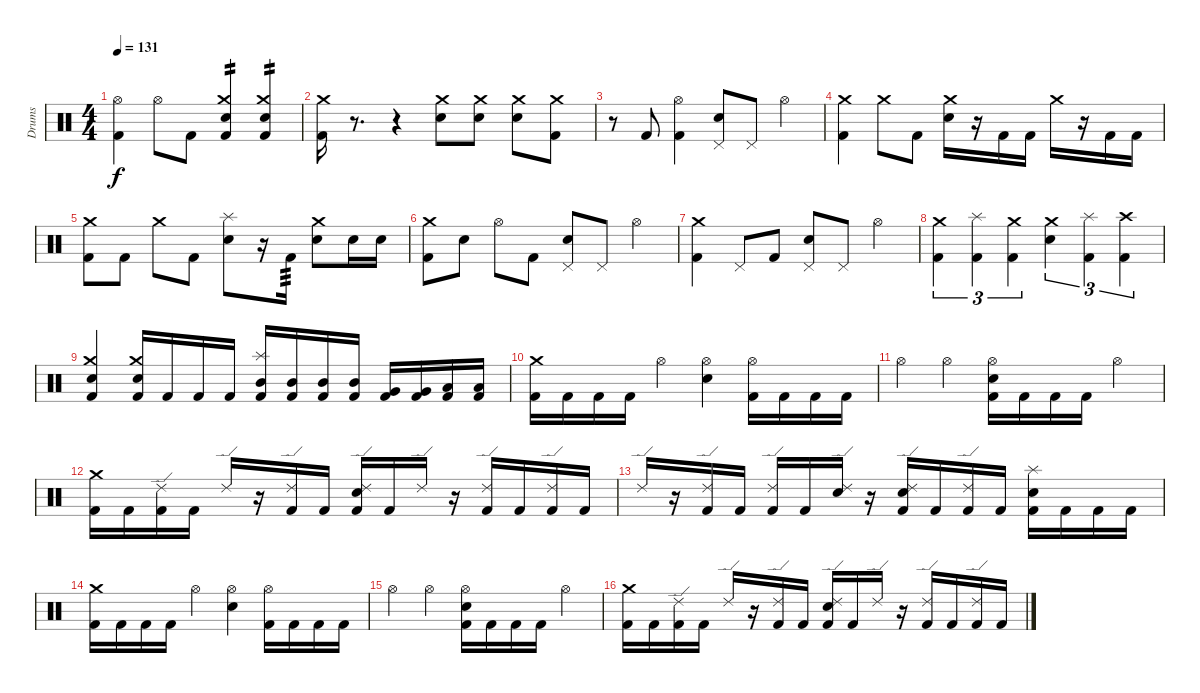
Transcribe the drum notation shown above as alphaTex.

\track ("Drums" "Drums") {instrument percussion}
\staff {score}
\articulation defaults
\ts (4 4)
\tempo 131
\clef neutral
\ks c
("Hi-Hat (open)" "Kick (hit) 2").4{dy f} "Hi-Hat (open)".8 "Kick (hit) 2".8 ("Crash medium (hit)" "Electric Snare (hit)" "Kick (hit) 2").4{tp 2} ("Crash medium (hit)" "Electric Snare (hit)" "Kick (hit) 2").4{tp 2} |
("Crash medium (hit)" "Kick (hit) 2").16 r.8{d volume 0} r.4 ("Crash medium (hit)" "Electric Snare (hit)").8{volume 16} ("Crash medium (hit)" "Electric Snare (hit)").8 ("Crash medium (hit)" "Electric Snare (hit)").8 ("Crash medium (hit)" "Kick (hit) 2").8 |
r.8 "Kick (hit) 2".8 ("Hi-Hat (open)" "Kick (hit) 2").4 ("Pedal Hi-Hat (hit)" "Electric Snare (hit)").8 "Pedal Hi-Hat (hit)".8 "Hi-Hat (open)".4 |
("Crash medium (hit)" "Kick (hit) 2").4 "Crash medium (hit)".8 "Kick (hit) 2".8 ("Crash medium (hit)" "Electric Snare (hit)").16 r.16 "Kick (hit) 2".16 "Kick (hit) 2".16 "Crash medium (hit)".16 r.16 "Kick (hit) 2".16 "Kick (hit) 2".16 |
("Crash medium (hit)" "Kick (hit) 2").8 "Kick (hit) 2".8 "Crash medium (hit)".8 "Kick (hit) 2".8 ("Splash (hit)" "Electric Snare (hit)").8 r.16 "Kick (hit) 2".16{tp 3} ("Crash medium (hit)" "Electric Snare (hit)").8 "Electric Snare (hit)".16 "Electric Snare (hit)".16 |
("Crash medium (hit)" "Kick (hit) 2").8 "Electric Snare (hit)".8 "Hi-Hat (open)".8 "Kick (hit) 2".8 ("Pedal Hi-Hat (hit)" "Electric Snare (hit)").8 "Pedal Hi-Hat (hit)".8 "Hi-Hat (open)".4 |
("Crash medium (hit)" "Kick (hit) 2").4 "Pedal Hi-Hat (hit)".8 "Kick (hit) 2".8 ("Pedal Hi-Hat (hit)" "Electric Snare (hit)").8 "Pedal Hi-Hat (hit)".8 "Hi-Hat (open)".4 |
("Crash medium (hit)" "Kick (hit) 2").4{tu (3 2)} ("Splash (hit)" "Kick (hit) 2").4{tu (3 2)} ("Crash medium (hit)" "Kick (hit) 2").4{tu (3 2)} ("Crash medium (hit)" "Electric Snare (hit)").4{tu (3 2)} ("Splash (hit)" "Kick (hit) 2").4{tu (3 2)} ("Crash high (hit)" "Kick (hit) 2").4{tu (3 2)} |
("Crash medium (hit)" "Electric Snare (hit)" "Kick (hit) 2").4 ("Crash medium (hit)" "Electric Snare (hit)" "Kick (hit) 2").16 "Kick (hit) 2".16 "Kick (hit) 2".16 "Kick (hit) 2".16 ("Splash (hit)" "Mid Tom (hit)" "Kick (hit) 2").16 ("Mid Tom (hit)" "Kick (hit) 2").16 ("Mid Tom (hit)" "Kick (hit) 2").16 ("Mid Tom (hit)" "Kick (hit) 2").16 ("Very Low Tom (hit)" "Kick (hit) 2").16 ("Very Low Tom (hit)" "Kick (hit) 2").16 ("Low Floor Tom (hit)" "Kick (hit) 2").16 ("Low Floor Tom (hit)" "Kick (hit) 2").16 |
("Crash medium (hit)" "Kick (hit) 2").16 "Kick (hit) 2".16 "Kick (hit) 2".16 "Kick (hit) 2".16 "Hi-Hat (open)".4 ("Hi-Hat (open)" "Electric Snare (hit)").4 ("Hi-Hat (open)" "Kick (hit) 2").16 "Kick (hit) 2".16 "Kick (hit) 2".16 "Kick (hit) 2".16 |
"Hi-Hat (open)".4 "Hi-Hat (open)".4 ("Hi-Hat (open)" "Electric Snare (hit)" "Kick (hit) 2").16 "Kick (hit) 2".16 "Kick (hit) 2".16 "Kick (hit) 2".16 "Hi-Hat (open)".4 |
("Crash medium (hit)" "Kick (hit) 2").16 "Kick (hit) 2".16 ("Ride (edge) 2" "Kick (hit) 2").16 "Kick (hit) 2".16 "Ride (edge) 2".16 r.16 ("Ride (edge) 2" "Kick (hit) 2").16 "Kick (hit) 2".16 ("Ride (edge) 2" "Electric Snare (hit)" "Kick (hit) 2").16 "Kick (hit) 2".16 "Ride (edge) 2".16 r.16 ("Ride (edge) 2" "Kick (hit) 2").16 "Kick (hit) 2".16 ("Ride (edge) 2" "Kick (hit) 2").16 "Kick (hit) 2".16 |
"Ride (edge) 2".16 r.16 ("Ride (edge) 2" "Kick (hit) 2").16 "Kick (hit) 2".16 ("Ride (edge) 2" "Kick (hit) 2").16 "Kick (hit) 2".16 ("Ride (edge) 2" "Electric Snare (hit)").16 r.16 ("Ride (edge) 2" "Electric Snare (hit)" "Kick (hit) 2").16 "Kick (hit) 2".16 ("Ride (edge) 2" "Kick (hit) 2").16 "Kick (hit) 2".16 ("Splash (hit)" "Electric Snare (hit)" "Kick (hit) 2").16 "Kick (hit) 2".16 "Kick (hit) 2".16 "Kick (hit) 2".16 |
("Crash medium (hit)" "Kick (hit) 2").16 "Kick (hit) 2".16 "Kick (hit) 2".16 "Kick (hit) 2".16 "Hi-Hat (open)".4 ("Hi-Hat (open)" "Electric Snare (hit)").4 ("Hi-Hat (open)" "Kick (hit) 2").16 "Kick (hit) 2".16 "Kick (hit) 2".16 "Kick (hit) 2".16 |
"Hi-Hat (open)".4 "Hi-Hat (open)".4 ("Hi-Hat (open)" "Electric Snare (hit)" "Kick (hit) 2").16 "Kick (hit) 2".16 "Kick (hit) 2".16 "Kick (hit) 2".16 "Hi-Hat (open)".4 |
("Crash medium (hit)" "Kick (hit) 2").16 "Kick (hit) 2".16 ("Ride (edge) 2" "Kick (hit) 2").16 "Kick (hit) 2".16 "Ride (edge) 2".16 r.16 ("Ride (edge) 2" "Kick (hit) 2").16 "Kick (hit) 2".16 ("Ride (edge) 2" "Electric Snare (hit)" "Kick (hit) 2").16 "Kick (hit) 2".16 "Ride (edge) 2".16 r.16 ("Ride (edge) 2" "Kick (hit) 2").16 "Kick (hit) 2".16 ("Ride (edge) 2" "Kick (hit) 2").16 "Kick (hit) 2".16
